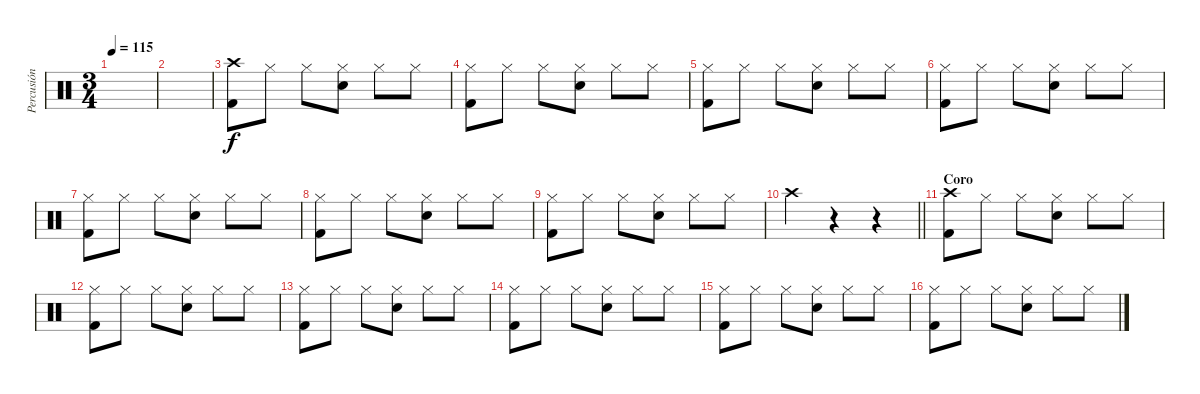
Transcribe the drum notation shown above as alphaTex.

\track ("Percusión" "Percusión") {instrument percussion}
\staff {score}
\articulation defaults
\ts (3 4)
\tempo 115
\clef neutral
\ks c
|
|
("Crash high (hit)" "Kick (hit) 2").8 "Hi-Hat (closed)".8 "Hi-Hat (closed)".8 ("Hi-Hat (closed)" "Electric Snare (hit)").8 "Hi-Hat (closed)".8 "Hi-Hat (closed)".8 |
("Hi-Hat (closed)" "Kick (hit) 2").8 "Hi-Hat (closed)".8 "Hi-Hat (closed)".8 ("Hi-Hat (closed)" "Electric Snare (hit)").8 "Hi-Hat (closed)".8 "Hi-Hat (closed)".8 |
("Hi-Hat (closed)" "Kick (hit) 2").8 "Hi-Hat (closed)".8 "Hi-Hat (closed)".8 ("Hi-Hat (closed)" "Electric Snare (hit)").8 "Hi-Hat (closed)".8 "Hi-Hat (closed)".8 |
("Hi-Hat (closed)" "Kick (hit) 2").8 "Hi-Hat (closed)".8 "Hi-Hat (closed)".8 ("Hi-Hat (closed)" "Electric Snare (hit)").8 "Hi-Hat (closed)".8 "Hi-Hat (closed)".8 |
("Hi-Hat (closed)" "Kick (hit) 2").8 "Hi-Hat (closed)".8 "Hi-Hat (closed)".8 ("Hi-Hat (closed)" "Electric Snare (hit)").8 "Hi-Hat (closed)".8 "Hi-Hat (closed)".8 |
("Hi-Hat (closed)" "Kick (hit) 2").8 "Hi-Hat (closed)".8 "Hi-Hat (closed)".8 ("Hi-Hat (closed)" "Electric Snare (hit)").8 "Hi-Hat (closed)".8 "Hi-Hat (closed)".8 |
("Hi-Hat (closed)" "Kick (hit) 2").8 "Hi-Hat (closed)".8 "Hi-Hat (closed)".8 ("Hi-Hat (closed)" "Electric Snare (hit)").8 "Hi-Hat (closed)".8 "Hi-Hat (closed)".8 |
\barLineRight lightlight "Crash high (hit)".4
r.4 r.4 |
\section ("" "Coro")
("Crash high (hit)" "Kick (hit) 2").8 "Hi-Hat (closed)".8 "Hi-Hat (closed)".8 ("Hi-Hat (closed)" "Electric Snare (hit)").8 "Hi-Hat (closed)".8 "Hi-Hat (closed)".8 |
("Hi-Hat (closed)" "Kick (hit) 2").8 "Hi-Hat (closed)".8 "Hi-Hat (closed)".8 ("Hi-Hat (closed)" "Electric Snare (hit)").8 "Hi-Hat (closed)".8 "Hi-Hat (closed)".8 |
("Hi-Hat (closed)" "Kick (hit) 2").8 "Hi-Hat (closed)".8 "Hi-Hat (closed)".8 ("Hi-Hat (closed)" "Electric Snare (hit)").8 "Hi-Hat (closed)".8 "Hi-Hat (closed)".8 |
("Hi-Hat (closed)" "Kick (hit) 2").8 "Hi-Hat (closed)".8 "Hi-Hat (closed)".8 ("Hi-Hat (closed)" "Electric Snare (hit)").8 "Hi-Hat (closed)".8 "Hi-Hat (closed)".8 |
("Hi-Hat (closed)" "Kick (hit) 2").8 "Hi-Hat (closed)".8 "Hi-Hat (closed)".8 ("Hi-Hat (closed)" "Electric Snare (hit)").8 "Hi-Hat (closed)".8 "Hi-Hat (closed)".8 |
("Hi-Hat (closed)" "Kick (hit) 2").8 "Hi-Hat (closed)".8 "Hi-Hat (closed)".8 ("Hi-Hat (closed)" "Electric Snare (hit)").8 "Hi-Hat (closed)".8 "Hi-Hat (closed)".8
